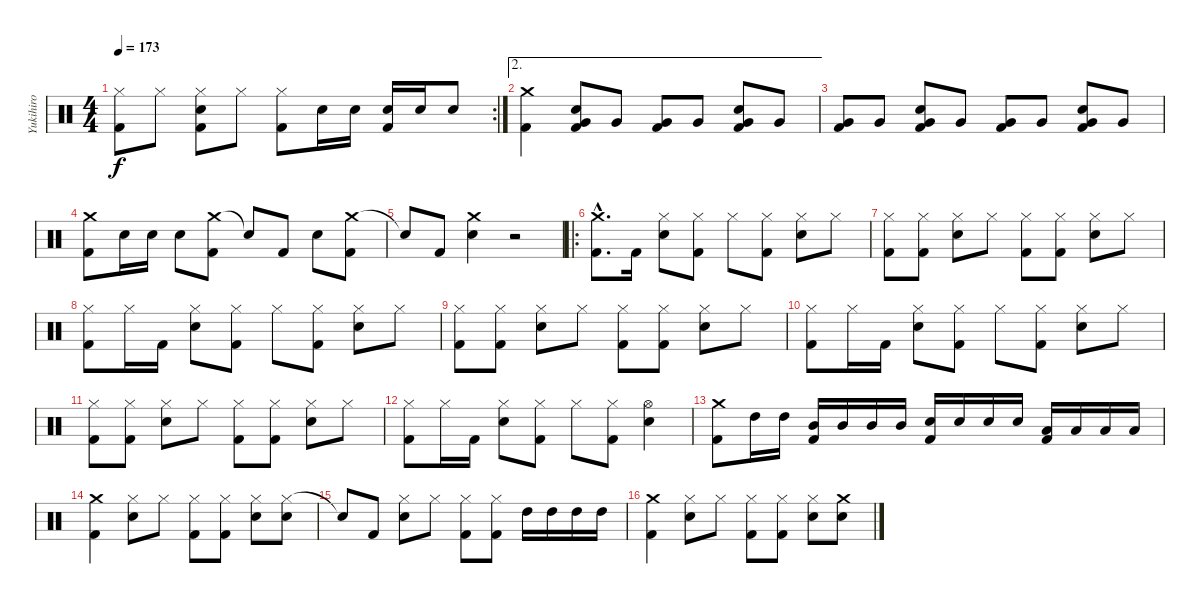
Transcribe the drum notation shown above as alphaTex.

\track ("Yukihiro" "Yukihiro") {instrument percussion}
\staff {score}
\articulation defaults
\rc 2
\ts (4 4)
\tempo 173
\clef neutral
\ks c
("Hi-Hat (closed)" "Kick (hit) 2").8{dy f} "Hi-Hat (closed)".8 ("Hi-Hat (closed)" "Snare (hit) 2" "Kick (hit) 2").8 "Hi-Hat (closed)".8 ("Hi-Hat (closed)" "Kick (hit) 2").8 "Snare (hit) 2".16 "Snare (hit) 2".16 ("Snare (hit) 2" "Kick (hit) 2").16 "Snare (hit) 2".16 "Snare (hit) 2".8 |
\ae 2
("Crash medium (hit)" "Kick (hit) 2").4 ("Snare (hit) 2" "Very Low Tom (hit)" "Kick (hit) 2").8 "Very Low Tom (hit)".8 ("Very Low Tom (hit)" "Kick (hit) 2").8 "Very Low Tom (hit)".8 ("Snare (hit) 2" "Very Low Tom (hit)" "Kick (hit) 2").8 "Very Low Tom (hit)".8 |
("Very Low Tom (hit)" "Kick (hit) 2").8 "Very Low Tom (hit)".8 ("Snare (hit) 2" "Very Low Tom (hit)" "Kick (hit) 2").8 "Very Low Tom (hit)".8 ("Very Low Tom (hit)" "Kick (hit) 2").8 "Very Low Tom (hit)".8 ("Snare (hit) 2" "Very Low Tom (hit)" "Kick (hit) 2").8 "Very Low Tom (hit)".8 |
("Crash medium (hit)" "Kick (hit) 2").8 "Snare (hit) 2".16 "Snare (hit) 2".16 "Snare (hit) 2".8 ("Crash medium (hit)" "Kick (hit) 2").8 "Snare (hit)"{t}.8 "Kick (hit) 2".8 "Snare (hit) 2".8 ("Crash medium (hit)" "Kick (hit) 2").8 |
"Snare (hit)"{t}.8 "Kick (hit) 2".8 ("Crash medium (hit)" "Snare (hit) 2").4 r.2 |
\ro
("Crash medium (hit)"{hac} "Kick (hit) 2"{hac}).8{d} "Kick (hit) 2".16 ("Hi-Hat (closed)" "Snare (hit) 2").8 ("Hi-Hat (closed)" "Kick (hit) 2").8 "Hi-Hat (closed)".8 ("Hi-Hat (closed)" "Kick (hit) 2").8 ("Hi-Hat (closed)" "Snare (hit) 2").8 "Hi-Hat (closed)".8 |
("Hi-Hat (closed)" "Kick (hit) 2").8 ("Hi-Hat (closed)" "Kick (hit) 2").8 ("Hi-Hat (closed)" "Snare (hit) 2").8 "Hi-Hat (closed)".8 ("Hi-Hat (closed)" "Kick (hit) 2").8 ("Hi-Hat (closed)" "Kick (hit) 2").8 ("Hi-Hat (closed)" "Snare (hit) 2").8 "Hi-Hat (closed)".8 |
("Hi-Hat (closed)" "Kick (hit) 2").8 "Hi-Hat (closed)".16 "Kick (hit) 2".16 ("Hi-Hat (closed)" "Snare (hit) 2").8 ("Hi-Hat (closed)" "Kick (hit) 2").8 "Hi-Hat (closed)".8 ("Hi-Hat (closed)" "Kick (hit) 2").8 ("Hi-Hat (closed)" "Snare (hit) 2").8 "Hi-Hat (closed)".8 |
("Hi-Hat (closed)" "Kick (hit) 2").8 ("Hi-Hat (closed)" "Kick (hit) 2").8 ("Hi-Hat (closed)" "Snare (hit) 2").8 "Hi-Hat (closed)".8 ("Hi-Hat (closed)" "Kick (hit) 2").8 ("Hi-Hat (closed)" "Kick (hit) 2").8 ("Hi-Hat (closed)" "Snare (hit) 2").8 "Hi-Hat (closed)".8 |
("Hi-Hat (closed)" "Kick (hit) 2").8 "Hi-Hat (closed)".16 "Kick (hit) 2".16 ("Hi-Hat (closed)" "Snare (hit) 2").8 ("Hi-Hat (closed)" "Kick (hit) 2").8 "Hi-Hat (closed)".8 ("Hi-Hat (closed)" "Kick (hit) 2").8 ("Hi-Hat (closed)" "Snare (hit) 2").8 "Hi-Hat (closed)".8 |
("Hi-Hat (closed)" "Kick (hit) 2").8 ("Hi-Hat (closed)" "Kick (hit) 2").8 ("Hi-Hat (closed)" "Snare (hit) 2").8 "Hi-Hat (closed)".8 ("Hi-Hat (closed)" "Kick (hit) 2").8 ("Hi-Hat (closed)" "Kick (hit) 2").8 ("Hi-Hat (closed)" "Snare (hit) 2").8 "Hi-Hat (closed)".8 |
("Hi-Hat (closed)" "Kick (hit) 2").8 "Hi-Hat (closed)".16 "Kick (hit) 2".16 ("Hi-Hat (closed)" "Snare (hit) 2").8 ("Hi-Hat (closed)" "Kick (hit) 2").8 "Hi-Hat (closed)".8 ("Hi-Hat (closed)" "Kick (hit) 2").8 ("Hi-Hat (open)" "Snare (hit) 2").4 |
("Crash medium (hit)" "Kick (hit) 2").8 "High Tom (hit)".16 "High Tom (hit)".16 ("Mid Tom (hit)" "Kick (hit) 2").16 "Mid Tom (hit)".16 "Mid Tom (hit)".16 "Mid Tom (hit)".16 ("Snare (hit) 2" "Kick (hit) 2").16 "Snare (hit) 2".16 "Snare (hit) 2".16 "Snare (hit) 2".16 ("Low Tom (hit)" "Kick (hit) 2").16 "Low Tom (hit)".16 "Low Tom (hit)".16 "Low Tom (hit)".16 |
("Crash medium (hit)" "Kick (hit) 2").4 ("Hi-Hat (closed)" "Snare (hit) 2").8 "Hi-Hat (closed)".8 ("Hi-Hat (closed)" "Kick (hit) 2").8 ("Hi-Hat (closed)" "Kick (hit) 2").8 ("Hi-Hat (closed)" "Snare (hit) 2").8 ("Hi-Hat (closed)" "Snare (hit) 2").8 |
"Snare (hit)"{t}.8 "Kick (hit) 2".8 ("Hi-Hat (closed)" "Snare (hit) 2").8 "Hi-Hat (closed)".8 ("Hi-Hat (closed)" "Kick (hit) 2").8 ("Hi-Hat (closed)" "Kick (hit) 2").8 "High Tom (hit)".16 "High Tom (hit)".16 "High Tom (hit)".16 "High Tom (hit)".16 |
("Crash medium (hit)" "Kick (hit) 2").4 ("Hi-Hat (closed)" "Snare (hit) 2").8 "Hi-Hat (closed)".8 ("Hi-Hat (closed)" "Kick (hit) 2").8 ("Hi-Hat (closed)" "Kick (hit) 2").8 ("Hi-Hat (closed)" "Snare (hit) 2").8 ("Crash medium (hit)" "Snare (hit) 2").8
